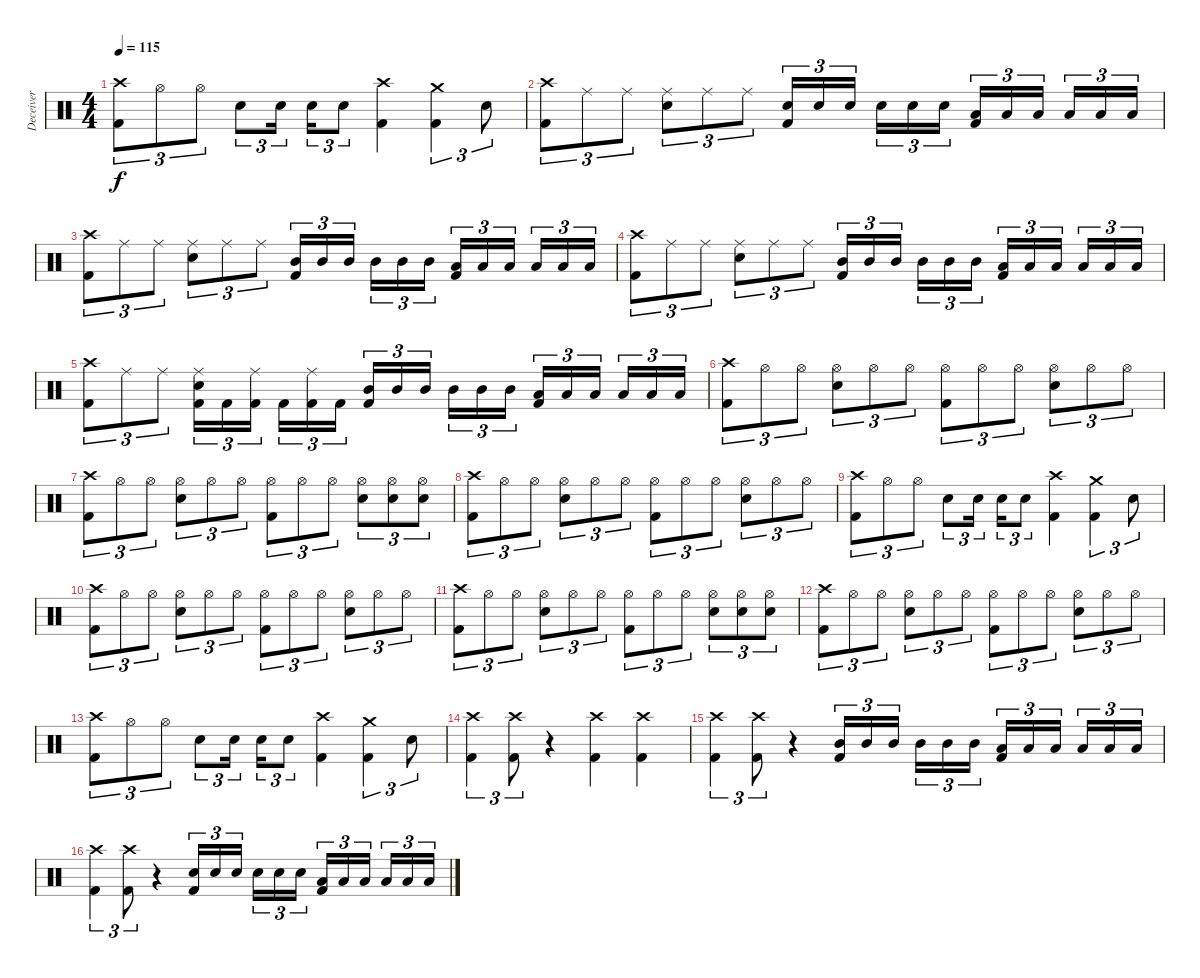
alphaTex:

\track ("Deceiver" "Deceiver") {instrument percussion}
\staff {score}
\articulation defaults
\ts (4 4)
\tempo 115
\clef neutral
\ks c
("Crash high (hit)" "Kick (hit) 2").8{tu (3 2) dy f} "Hi-Hat (open)".8{tu (3 2)} "Hi-Hat (open)".8{tu (3 2)} "Electric Snare (hit)".8{tu (3 2)} "Electric Snare (hit)".16{tu (3 2) beam splitsecondary} "Electric Snare (hit)".16{tu (3 2)} "Electric Snare (hit)".8{tu (3 2)} ("Crash high (hit)" "Kick (hit) 2").4 ("Crash medium (hit)" "Kick (hit) 2").4{tu (3 2)} "Electric Snare (hit)".8{tu (3 2)} |
("Crash high (hit)" "Kick (hit) 2").8{tu (3 2)} "Ride (middle)".8{tu (3 2)} "Ride (middle)".8{tu (3 2)} ("Ride (middle)" "Electric Snare (hit)").8{tu (3 2)} "Ride (middle)".8{tu (3 2)} "Ride (middle)".8{tu (3 2)} ("Electric Snare (hit)" "Kick (hit) 2").16{tu (3 2)} "Electric Snare (hit)".16{tu (3 2)} "Electric Snare (hit)".16{tu (3 2) beam splitsecondary} "Electric Snare (hit)".16{tu (3 2)} "Electric Snare (hit)".16{tu (3 2)} "Electric Snare (hit)".16{tu (3 2)} ("Low Tom (hit)" "Kick (hit) 2").16{tu (3 2)} "Low Tom (hit)".16{tu (3 2)} "Low Tom (hit)".16{tu (3 2) beam splitsecondary} "Low Tom (hit)".16{tu (3 2)} "Low Tom (hit)".16{tu (3 2)} "Low Tom (hit)".16{tu (3 2)} |
("Crash high (hit)" "Kick (hit) 2").8{tu (3 2)} "Ride (middle)".8{tu (3 2)} "Ride (middle)".8{tu (3 2)} ("Ride (middle)" "Electric Snare (hit)").8{tu (3 2)} "Ride (middle)".8{tu (3 2)} "Ride (middle)".8{tu (3 2)} ("Mid Tom (hit)" "Kick (hit) 2").16{tu (3 2)} "Mid Tom (hit)".16{tu (3 2)} "Mid Tom (hit)".16{tu (3 2) beam splitsecondary} "Mid Tom (hit)".16{tu (3 2)} "Mid Tom (hit)".16{tu (3 2)} "Mid Tom (hit)".16{tu (3 2)} ("Low Tom (hit)" "Kick (hit) 2").16{tu (3 2)} "Low Tom (hit)".16{tu (3 2)} "Low Tom (hit)".16{tu (3 2) beam splitsecondary} "Low Tom (hit)".16{tu (3 2)} "Low Tom (hit)".16{tu (3 2)} "Low Tom (hit)".16{tu (3 2)} |
("Crash high (hit)" "Kick (hit) 2").8{tu (3 2)} "Ride (middle)".8{tu (3 2)} "Ride (middle)".8{tu (3 2)} ("Ride (middle)" "Electric Snare (hit)").8{tu (3 2)} "Ride (middle)".8{tu (3 2)} "Ride (middle)".8{tu (3 2)} ("Mid Tom (hit)" "Kick (hit) 2").16{tu (3 2)} "Mid Tom (hit)".16{tu (3 2)} "Mid Tom (hit)".16{tu (3 2) beam splitsecondary} "Mid Tom (hit)".16{tu (3 2)} "Mid Tom (hit)".16{tu (3 2)} "Mid Tom (hit)".16{tu (3 2)} ("Low Tom (hit)" "Kick (hit) 2").16{tu (3 2)} "Low Tom (hit)".16{tu (3 2)} "Low Tom (hit)".16{tu (3 2) beam splitsecondary} "Low Tom (hit)".16{tu (3 2)} "Low Tom (hit)".16{tu (3 2)} "Low Tom (hit)".16{tu (3 2)} |
("Crash high (hit)" "Kick (hit) 2").8{tu (3 2)} "Ride (middle)".8{tu (3 2)} "Ride (middle)".8{tu (3 2)} ("Ride (middle)" "Electric Snare (hit)" "Kick (hit) 2").16{tu (3 2)} "Kick (hit) 2".16{tu (3 2)} ("Ride (middle)" "Kick (hit) 2").16{tu (3 2) beam splitsecondary} "Kick (hit) 2".16{tu (3 2)} ("Ride (middle)" "Kick (hit) 2").16{tu (3 2)} "Kick (hit) 2".16{tu (3 2)} ("Mid Tom (hit)" "Kick (hit) 2").16{tu (3 2)} "Mid Tom (hit)".16{tu (3 2)} "Mid Tom (hit)".16{tu (3 2) beam splitsecondary} "Mid Tom (hit)".16{tu (3 2)} "Mid Tom (hit)".16{tu (3 2)} "Mid Tom (hit)".16{tu (3 2)} ("Low Tom (hit)" "Kick (hit) 2").16{tu (3 2)} "Low Tom (hit)".16{tu (3 2)} "Low Tom (hit)".16{tu (3 2) beam splitsecondary} "Low Tom (hit)".16{tu (3 2)} "Low Tom (hit)".16{tu (3 2)} "Low Tom (hit)".16{tu (3 2)} |
("Crash high (hit)" "Kick (hit) 2").8{tu (3 2)} "Hi-Hat (open)".8{tu (3 2)} "Hi-Hat (open)".8{tu (3 2)} ("Hi-Hat (open)" "Electric Snare (hit)").8{tu (3 2)} "Hi-Hat (open)".8{tu (3 2)} "Hi-Hat (open)".8{tu (3 2)} ("Hi-Hat (open)" "Kick (hit) 2").8{tu (3 2)} "Hi-Hat (open)".8{tu (3 2)} "Hi-Hat (open)".8{tu (3 2)} ("Hi-Hat (open)" "Electric Snare (hit)").8{tu (3 2)} "Hi-Hat (open)".8{tu (3 2)} "Hi-Hat (open)".8{tu (3 2)} |
("Crash high (hit)" "Kick (hit) 2").8{tu (3 2)} "Hi-Hat (open)".8{tu (3 2)} "Hi-Hat (open)".8{tu (3 2)} ("Hi-Hat (open)" "Electric Snare (hit)").8{tu (3 2)} "Hi-Hat (open)".8{tu (3 2)} "Hi-Hat (open)".8{tu (3 2)} ("Hi-Hat (open)" "Kick (hit) 2").8{tu (3 2)} "Hi-Hat (open)".8{tu (3 2)} "Hi-Hat (open)".8{tu (3 2)} ("Hi-Hat (open)" "Electric Snare (hit)").8{tu (3 2)} ("Hi-Hat (open)" "Electric Snare (hit)").8{tu (3 2)} ("Hi-Hat (open)" "Electric Snare (hit)").8{tu (3 2)} |
("Crash high (hit)" "Kick (hit) 2").8{tu (3 2)} "Hi-Hat (open)".8{tu (3 2)} "Hi-Hat (open)".8{tu (3 2)} ("Hi-Hat (open)" "Electric Snare (hit)").8{tu (3 2)} "Hi-Hat (open)".8{tu (3 2)} "Hi-Hat (open)".8{tu (3 2)} ("Hi-Hat (open)" "Kick (hit) 2").8{tu (3 2)} "Hi-Hat (open)".8{tu (3 2)} "Hi-Hat (open)".8{tu (3 2)} ("Hi-Hat (open)" "Electric Snare (hit)").8{tu (3 2)} "Hi-Hat (open)".8{tu (3 2)} "Hi-Hat (open)".8{tu (3 2)} |
("Crash high (hit)" "Kick (hit) 2").8{tu (3 2)} "Hi-Hat (open)".8{tu (3 2)} "Hi-Hat (open)".8{tu (3 2)} "Electric Snare (hit)".8{tu (3 2)} "Electric Snare (hit)".16{tu (3 2) beam splitsecondary} "Electric Snare (hit)".16{tu (3 2)} "Electric Snare (hit)".8{tu (3 2)} ("Crash high (hit)" "Kick (hit) 2").4 ("Crash medium (hit)" "Kick (hit) 2").4{tu (3 2)} "Electric Snare (hit)".8{tu (3 2)} |
("Crash high (hit)" "Kick (hit) 2").8{tu (3 2)} "Hi-Hat (open)".8{tu (3 2)} "Hi-Hat (open)".8{tu (3 2)} ("Hi-Hat (open)" "Electric Snare (hit)").8{tu (3 2)} "Hi-Hat (open)".8{tu (3 2)} "Hi-Hat (open)".8{tu (3 2)} ("Hi-Hat (open)" "Kick (hit) 2").8{tu (3 2)} "Hi-Hat (open)".8{tu (3 2)} "Hi-Hat (open)".8{tu (3 2)} ("Hi-Hat (open)" "Electric Snare (hit)").8{tu (3 2)} "Hi-Hat (open)".8{tu (3 2)} "Hi-Hat (open)".8{tu (3 2)} |
("Crash high (hit)" "Kick (hit) 2").8{tu (3 2)} "Hi-Hat (open)".8{tu (3 2)} "Hi-Hat (open)".8{tu (3 2)} ("Hi-Hat (open)" "Electric Snare (hit)").8{tu (3 2)} "Hi-Hat (open)".8{tu (3 2)} "Hi-Hat (open)".8{tu (3 2)} ("Hi-Hat (open)" "Kick (hit) 2").8{tu (3 2)} "Hi-Hat (open)".8{tu (3 2)} "Hi-Hat (open)".8{tu (3 2)} ("Hi-Hat (open)" "Electric Snare (hit)").8{tu (3 2)} ("Hi-Hat (open)" "Electric Snare (hit)").8{tu (3 2)} ("Hi-Hat (open)" "Electric Snare (hit)").8{tu (3 2)} |
("Crash high (hit)" "Kick (hit) 2").8{tu (3 2)} "Hi-Hat (open)".8{tu (3 2)} "Hi-Hat (open)".8{tu (3 2)} ("Hi-Hat (open)" "Electric Snare (hit)").8{tu (3 2)} "Hi-Hat (open)".8{tu (3 2)} "Hi-Hat (open)".8{tu (3 2)} ("Hi-Hat (open)" "Kick (hit) 2").8{tu (3 2)} "Hi-Hat (open)".8{tu (3 2)} "Hi-Hat (open)".8{tu (3 2)} ("Hi-Hat (open)" "Electric Snare (hit)").8{tu (3 2)} "Hi-Hat (open)".8{tu (3 2)} "Hi-Hat (open)".8{tu (3 2)} |
("Crash high (hit)" "Kick (hit) 2").8{tu (3 2)} "Hi-Hat (open)".8{tu (3 2)} "Hi-Hat (open)".8{tu (3 2)} "Electric Snare (hit)".8{tu (3 2)} "Electric Snare (hit)".16{tu (3 2) beam splitsecondary} "Electric Snare (hit)".16{tu (3 2)} "Electric Snare (hit)".8{tu (3 2)} ("Crash high (hit)" "Kick (hit) 2").4 ("Crash medium (hit)" "Kick (hit) 2").4{tu (3 2)} "Electric Snare (hit)".8{tu (3 2)} |
("Crash high (hit)" "Kick (hit) 2").4{tu (3 2)} ("Crash high (hit)" "Kick (hit) 2").8{tu (3 2)} r.4 ("Crash high (hit)" "Kick (hit) 2").4 ("Crash high (hit)" "Kick (hit) 2").4 |
("Crash high (hit)" "Kick (hit) 2").4{tu (3 2)} ("Crash high (hit)" "Kick (hit) 2").8{tu (3 2)} r.4 ("Mid Tom (hit)" "Kick (hit) 2").16{tu (3 2)} "Mid Tom (hit)".16{tu (3 2)} "Mid Tom (hit)".16{tu (3 2) beam splitsecondary} "Mid Tom (hit)".16{tu (3 2)} "Mid Tom (hit)".16{tu (3 2)} "Mid Tom (hit)".16{tu (3 2)} ("Low Tom (hit)" "Kick (hit) 2").16{tu (3 2)} "Low Tom (hit)".16{tu (3 2)} "Low Tom (hit)".16{tu (3 2) beam splitsecondary} "Low Tom (hit)".16{tu (3 2)} "Low Tom (hit)".16{tu (3 2)} "Low Tom (hit)".16{tu (3 2)} |
("Crash high (hit)" "Kick (hit) 2").4{tu (3 2)} ("Crash high (hit)" "Kick (hit) 2").8{tu (3 2)} r.4 ("Electric Snare (hit)" "Kick (hit) 2").16{tu (3 2)} "Electric Snare (hit)".16{tu (3 2)} "Electric Snare (hit)".16{tu (3 2) beam splitsecondary} "Electric Snare (hit)".16{tu (3 2)} "Electric Snare (hit)".16{tu (3 2)} "Electric Snare (hit)".16{tu (3 2)} ("Low Tom (hit)" "Kick (hit) 2").16{tu (3 2)} "Low Tom (hit)".16{tu (3 2)} "Low Tom (hit)".16{tu (3 2) beam splitsecondary} "Low Tom (hit)".16{tu (3 2)} "Low Tom (hit)".16{tu (3 2)} "Low Tom (hit)".16{tu (3 2)}
